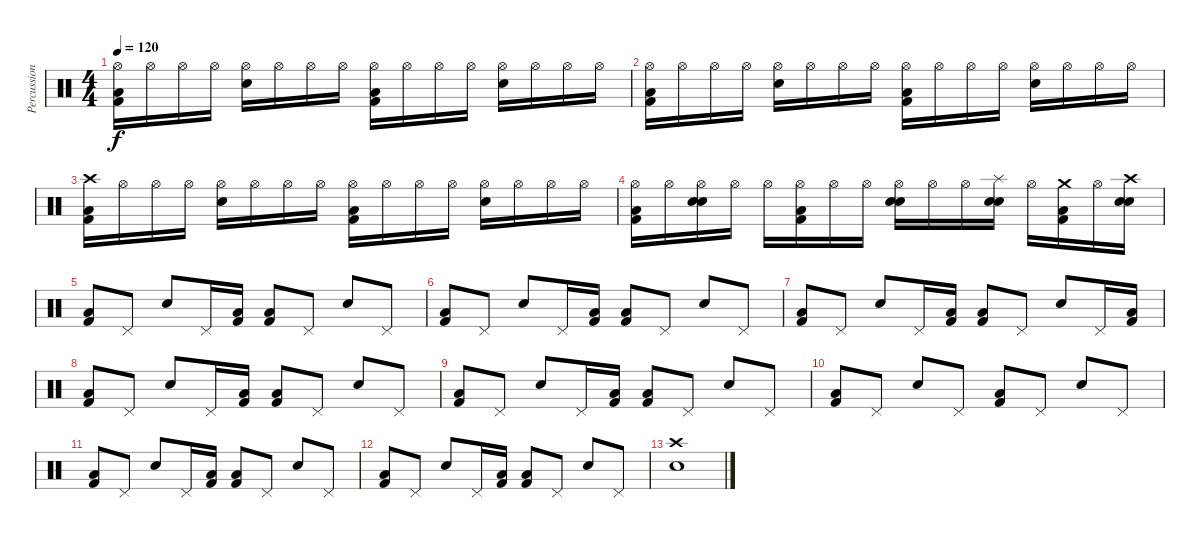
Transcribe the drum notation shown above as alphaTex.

\track ("Percussions" "Percussion") {instrument percussion}
\staff {score}
\articulation defaults
\ts (4 4)
\tempo 120
\clef neutral
\ks c
("Hi-Hat (open)" "Kick (hit) 2" "Low Floor Tom (hit)").16{dy f} "Hi-Hat (open)".16 "Hi-Hat (open)".16 "Hi-Hat (open)".16 ("Hi-Hat (open)" "Snare (hit) 2").16 "Hi-Hat (open)".16 "Hi-Hat (open)".16 "Hi-Hat (open)".16 ("Hi-Hat (open)" "Kick (hit) 2" "Low Floor Tom (hit)").16 "Hi-Hat (open)".16 "Hi-Hat (open)".16 "Hi-Hat (open)".16 ("Hi-Hat (open)" "Snare (hit) 2").16 "Hi-Hat (open)".16 "Hi-Hat (open)".16 "Hi-Hat (open)".16 |
("Hi-Hat (open)" "Kick (hit) 2" "Low Floor Tom (hit)").16 "Hi-Hat (open)".16 "Hi-Hat (open)".16 "Hi-Hat (open)".16 ("Hi-Hat (open)" "Snare (hit) 2").16 "Hi-Hat (open)".16 "Hi-Hat (open)".16 "Hi-Hat (open)".16 ("Hi-Hat (open)" "Kick (hit) 2" "Low Floor Tom (hit)").16 "Hi-Hat (open)".16 "Hi-Hat (open)".16 "Hi-Hat (open)".16 ("Hi-Hat (open)" "Snare (hit) 2").16 "Hi-Hat (open)".16 "Hi-Hat (open)".16 "Hi-Hat (open)".16 |
("Crash high (hit)" "Kick (hit) 2" "Low Floor Tom (hit)").16 "Hi-Hat (open)".16 "Hi-Hat (open)".16 "Hi-Hat (open)".16 ("Hi-Hat (open)" "Snare (hit) 2").16 "Hi-Hat (open)".16 "Hi-Hat (open)".16 "Hi-Hat (open)".16 ("Hi-Hat (open)" "Kick (hit) 2" "Low Floor Tom (hit)").16 "Hi-Hat (open)".16 "Hi-Hat (open)".16 "Hi-Hat (open)".16 ("Hi-Hat (open)" "Snare (hit) 2").16 "Hi-Hat (open)".16 "Hi-Hat (open)".16 "Hi-Hat (open)".16 |
("Hi-Hat (open)" "Kick (hit) 2" "Low Floor Tom (hit)").16 "Hi-Hat (open)".16 ("Hi-Hat (open)" "Snare (hit) 2" "Electric Snare (hit)").16 "Hi-Hat (open)".16 "Hi-Hat (open)".16 ("Hi-Hat (open)" "Kick (hit) 2" "Low Floor Tom (hit)").16 "Hi-Hat (open)".16 "Hi-Hat (open)".16 ("Hi-Hat (open)" "Snare (hit) 2" "Electric Snare (hit)").16 "Hi-Hat (open)".16 "Hi-Hat (open)".16 ("Splash (hit)" "Snare (hit) 2" "Electric Snare (hit)").16 "Hi-Hat (open)".16 ("Crash medium (hit)" "Kick (hit) 2" "Low Floor Tom (hit)").16 "Hi-Hat (open)".16 ("Crash high (hit)" "Snare (hit) 2" "Electric Snare (hit)").16 |
("Kick (hit) 2" "Low Floor Tom (hit)").8 "Pedal Hi-Hat (hit)".8 "Snare (hit) 2".8 "Pedal Hi-Hat (hit)".16 ("Kick (hit) 2" "Low Floor Tom (hit)").16 ("Kick (hit) 2" "Low Floor Tom (hit)").8 "Pedal Hi-Hat (hit)".8 "Snare (hit) 2".8 "Pedal Hi-Hat (hit)".8 |
("Kick (hit) 2" "Low Floor Tom (hit)").8 "Pedal Hi-Hat (hit)".8 "Snare (hit) 2".8 "Pedal Hi-Hat (hit)".16 ("Kick (hit) 2" "Low Floor Tom (hit)").16 ("Kick (hit) 2" "Low Floor Tom (hit)").8 "Pedal Hi-Hat (hit)".8 "Snare (hit) 2".8 "Pedal Hi-Hat (hit)".8 |
("Kick (hit) 2" "Low Floor Tom (hit)").8 "Pedal Hi-Hat (hit)".8 "Snare (hit) 2".8 "Pedal Hi-Hat (hit)".16 ("Kick (hit) 2" "Low Floor Tom (hit)").16 ("Kick (hit) 2" "Low Floor Tom (hit)").8 "Pedal Hi-Hat (hit)".8 "Snare (hit) 2".8 "Pedal Hi-Hat (hit)".16 ("Kick (hit) 2" "Low Floor Tom (hit)").16 |
("Kick (hit) 2" "Low Floor Tom (hit)").8 "Pedal Hi-Hat (hit)".8 "Snare (hit) 2".8 "Pedal Hi-Hat (hit)".16 ("Kick (hit) 2" "Low Floor Tom (hit)").16 ("Kick (hit) 2" "Low Floor Tom (hit)").8 "Pedal Hi-Hat (hit)".8 "Snare (hit) 2".8 "Pedal Hi-Hat (hit)".8 |
("Kick (hit) 2" "Low Floor Tom (hit)").8 "Pedal Hi-Hat (hit)".8 "Snare (hit) 2".8 "Pedal Hi-Hat (hit)".16 ("Kick (hit) 2" "Low Floor Tom (hit)").16 ("Kick (hit) 2" "Low Floor Tom (hit)").8 "Pedal Hi-Hat (hit)".8 "Snare (hit) 2".8 "Pedal Hi-Hat (hit)".8 |
("Kick (hit) 2" "Low Floor Tom (hit)").8 "Pedal Hi-Hat (hit)".8 "Snare (hit) 2".8 "Pedal Hi-Hat (hit)".8 ("Kick (hit) 2" "Low Floor Tom (hit)").8 "Pedal Hi-Hat (hit)".8 "Snare (hit) 2".8 "Pedal Hi-Hat (hit)".8 |
("Kick (hit) 2" "Low Floor Tom (hit)").8 "Pedal Hi-Hat (hit)".8 "Snare (hit) 2".8 "Pedal Hi-Hat (hit)".16 ("Kick (hit) 2" "Low Floor Tom (hit)").16 ("Kick (hit) 2" "Low Floor Tom (hit)").8 "Pedal Hi-Hat (hit)".8 "Snare (hit) 2".8 "Pedal Hi-Hat (hit)".8 |
("Kick (hit) 2" "Low Floor Tom (hit)").8 "Pedal Hi-Hat (hit)".8 "Snare (hit) 2".8 "Pedal Hi-Hat (hit)".16 ("Kick (hit) 2" "Low Floor Tom (hit)").16 ("Kick (hit) 2" "Low Floor Tom (hit)").8 "Pedal Hi-Hat (hit)".8 "Snare (hit) 2".8 "Pedal Hi-Hat (hit)".8 |
("Crash high (hit)" "Snare (hit) 2").1
